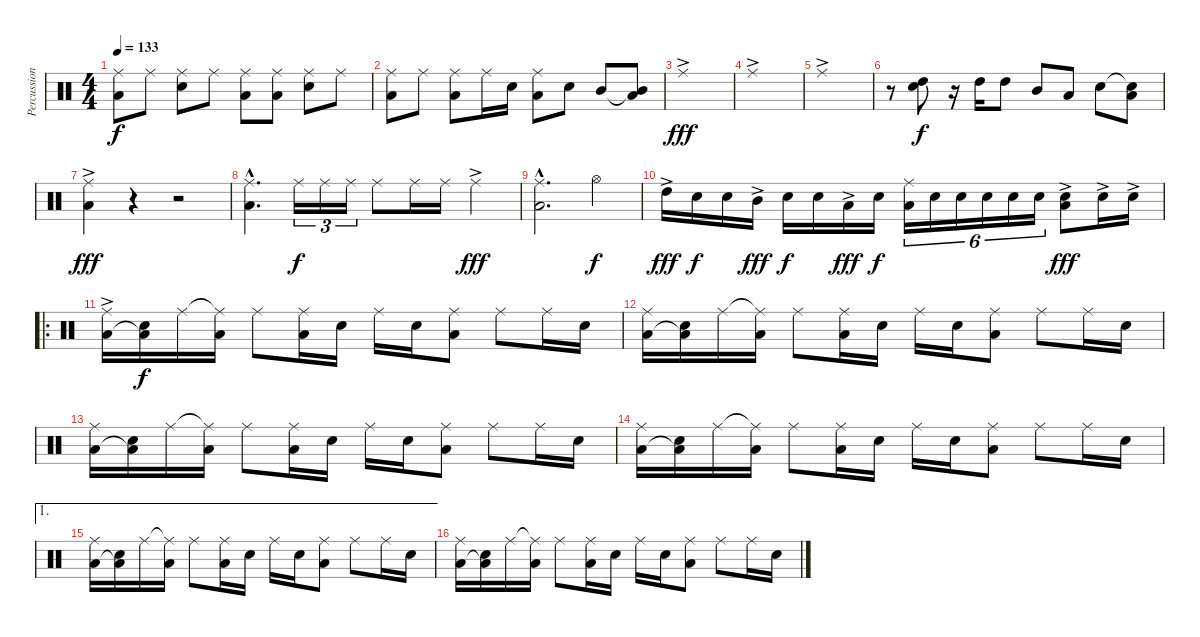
\track ("Percussion" "Percussion") {instrument percussion}
\staff {score}
\articulation defaults
\ts (4 4)
\tempo 133
\clef neutral
\ks c
("Ride (middle)" "Low Floor Tom (hit)").8{dy f} "Ride (middle)".8 ("Ride (middle)" "Snare (hit) 2").8 "Ride (middle)".8 ("Ride (middle)" "Low Floor Tom (hit)").8 ("Ride (middle)" "Low Floor Tom (hit)").8 ("Ride (middle)" "Snare (hit) 2").8 "Ride (middle)".8 |
("Ride (middle)" "Low Floor Tom (hit)").8 "Ride (middle)".8 ("Ride (middle)" "Low Floor Tom (hit)").8 "Ride (middle)".16 "Snare (hit) 2".16 ("Ride (middle)" "Low Floor Tom (hit)").8 "Snare (hit) 2".8 "Mid Tom (hit)".8 ("Mid Tom (hit)"{t} "Low Floor Tom (hit)").8 |
"Ride (middle)"{ac}.1{dy fff} |
"Ride (middle)"{ac}.1 |
"Ride (middle)"{ac}.1 |
r.8 ("High Tom (hit)" "Snare (hit) 2").8{dy f} r.16 "High Tom (hit)".16 "High Tom (hit)".8 "Mid Tom (hit)".8 "Low Tom (hit)".8 "Snare (hit) 2".8 ("Snare (hit) 2"{t} "Low Floor Tom (hit)").8 |
("Ride (middle)"{ac} "Low Floor Tom (hit)").4{dy fff} r.4 r.2 |
("Ride (middle)"{hac} "Low Floor Tom (hit)"{hac}).4{d} "Ride (middle)".16{tu (3 2) dy f} "Ride (middle)".16{tu (3 2)} "Ride (middle)".16{tu (3 2)} "Ride (middle)".8 "Ride (middle)".16 "Ride (middle)".16 "Ride (middle)"{ac}.4{dy fff} |
("Ride (middle)"{hac} "Low Floor Tom (hit)"{hac}).2{d} "Hi-Hat (open)".4{dy f} |
"High Tom (hit)"{ac}.16{dy fff} "Snare (hit) 2".16{dy f} "Snare (hit) 2".16 "Mid Tom (hit)"{ac}.16{dy fff} "Snare (hit) 2".16{dy f} "Snare (hit) 2".16 "Low Tom (hit)"{ac}.16{dy fff} "Snare (hit) 2".16{dy f} ("Ride (middle)" "Low Floor Tom (hit)").16{tu (6 4)} "Snare (hit) 2".16{tu (6 4)} "Snare (hit) 2".16{tu (6 4)} "Snare (hit) 2".16{tu (6 4)} "Snare (hit) 2".16{tu (6 4)} "Snare (hit) 2".16{tu (6 4)} ("Snare (hit) 2"{ac} "Low Floor Tom (hit)").8{dy fff} "Snare (hit) 2"{ac}.16 "Snare (hit) 2"{ac}.16 |
\ro
("Ride (middle)"{ac} "Low Floor Tom (hit)").16 ("Snare (hit) 2" "Low Floor Tom (hit)"{t}).16{dy f} "Ride (middle)".16 ("Ride (middle)"{t} "Low Floor Tom (hit)").16 "Ride (middle)".8 ("Ride (middle)" "Low Floor Tom (hit)").16 "Snare (hit) 2".16 "Ride (middle)".16 "Snare (hit) 2".16 ("Ride (middle)" "Low Floor Tom (hit)").8 "Ride (middle)".8 "Ride (middle)".16 "Snare (hit) 2".16 |
("Ride (middle)" "Low Floor Tom (hit)").16 ("Snare (hit) 2" "Low Floor Tom (hit)"{t}).16 "Ride (middle)".16 ("Ride (middle)"{t} "Low Floor Tom (hit)").16 "Ride (middle)".8 ("Ride (middle)" "Low Floor Tom (hit)").16 "Snare (hit) 2".16 "Ride (middle)".16 "Snare (hit) 2".16 ("Ride (middle)" "Low Floor Tom (hit)").8 "Ride (middle)".8 "Ride (middle)".16 "Snare (hit) 2".16 |
("Ride (middle)" "Low Floor Tom (hit)").16 ("Snare (hit) 2" "Low Floor Tom (hit)"{t}).16 "Ride (middle)".16 ("Ride (middle)"{t} "Low Floor Tom (hit)").16 "Ride (middle)".8 ("Ride (middle)" "Low Floor Tom (hit)").16 "Snare (hit) 2".16 "Ride (middle)".16 "Snare (hit) 2".16 ("Ride (middle)" "Low Floor Tom (hit)").8 "Ride (middle)".8 "Ride (middle)".16 "Snare (hit) 2".16 |
("Ride (middle)" "Low Floor Tom (hit)").16 ("Snare (hit) 2" "Low Floor Tom (hit)"{t}).16 "Ride (middle)".16 ("Ride (middle)"{t} "Low Floor Tom (hit)").16 "Ride (middle)".8 ("Ride (middle)" "Low Floor Tom (hit)").16 "Snare (hit) 2".16 "Ride (middle)".16 "Snare (hit) 2".16 ("Ride (middle)" "Low Floor Tom (hit)").8 "Ride (middle)".8 "Ride (middle)".16 "Snare (hit) 2".16 |
\ae 1
("Ride (middle)" "Low Floor Tom (hit)").16 ("Snare (hit) 2" "Low Floor Tom (hit)"{t}).16 "Ride (middle)".16 ("Ride (middle)"{t} "Low Floor Tom (hit)").16 "Ride (middle)".8 ("Ride (middle)" "Low Floor Tom (hit)").16 "Snare (hit) 2".16 "Ride (middle)".16 "Snare (hit) 2".16 ("Ride (middle)" "Low Floor Tom (hit)").8 "Ride (middle)".8 "Ride (middle)".16 "Snare (hit) 2".16 |
("Ride (middle)" "Low Floor Tom (hit)").16 ("Snare (hit) 2" "Low Floor Tom (hit)"{t}).16 "Ride (middle)".16 ("Ride (middle)"{t} "Low Floor Tom (hit)").16 "Ride (middle)".8 ("Ride (middle)" "Low Floor Tom (hit)").16 "Snare (hit) 2".16 "Ride (middle)".16 "Snare (hit) 2".16 ("Ride (middle)" "Low Floor Tom (hit)").8 "Ride (middle)".8 "Ride (middle)".16 "Snare (hit) 2".16
